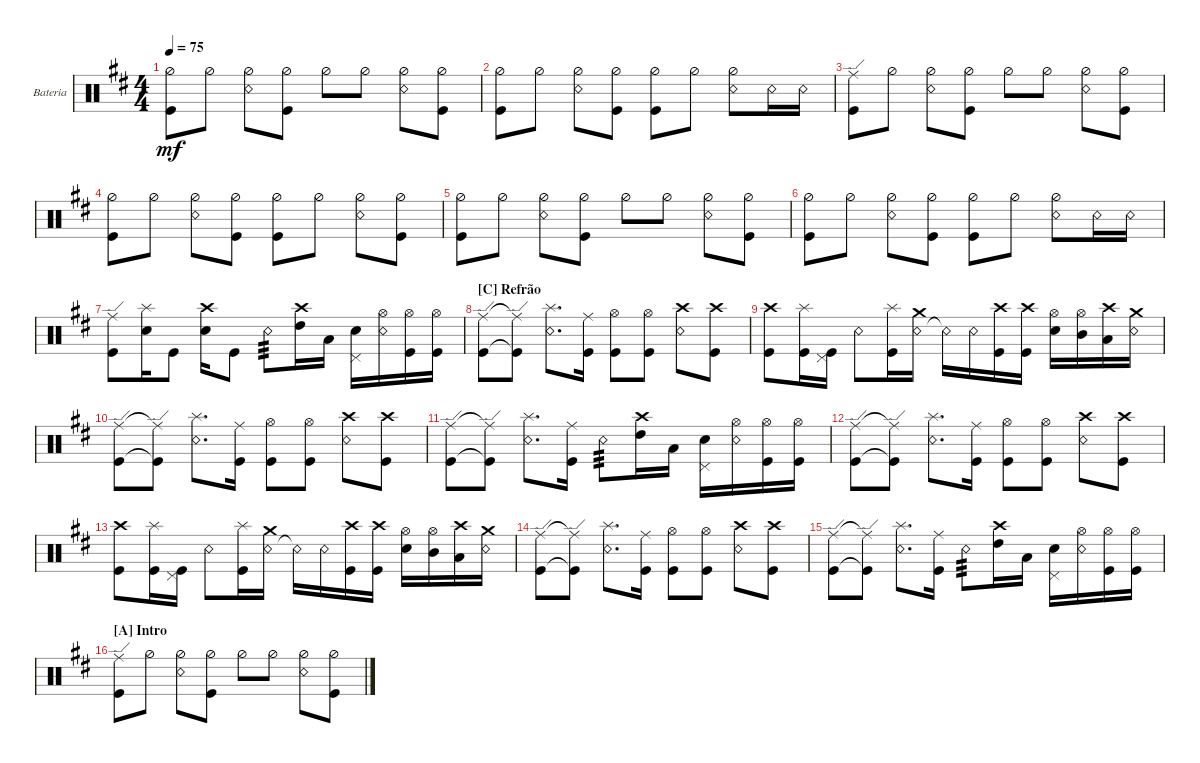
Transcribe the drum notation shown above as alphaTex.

\defaultSystemsLayout 4
\bracketExtendMode groupsimilarinstruments
\firstSystemTrackNameOrientation horizontal
\otherSystemsTrackNameOrientation horizontal
\track ("Bateria" "Bateria") {multiBarRest instrument percussion}
\staff {score}
\articulation defaults
\ts (4 4)
\tempo 75
\clef neutral
\ks d
("Hi-Hat (half)" "Kick (hit)").8{dy mf} "Hi-Hat (half)".8 ("Hi-Hat (half)" "Snare (rim shot)").8 ("Hi-Hat (half)" "Kick (hit)").8 "Hi-Hat (half)".8 "Hi-Hat (half)".8 ("Snare (rim shot)" "Hi-Hat (half)").8 ("Hi-Hat (half)" "Kick (hit)").8 |
("Hi-Hat (half)" "Kick (hit)").8 "Hi-Hat (half)".8 ("Hi-Hat (half)" "Snare (rim shot)").8 ("Hi-Hat (half)" "Kick (hit)").8 ("Hi-Hat (half)" "Kick (hit)").8 "Hi-Hat (half)".8 ("Snare (rim shot)" "Hi-Hat (half)").8 "Snare (rim shot)".16 "Snare (rim shot)".16 |
("Kick (hit)" "Ride (edge)").8 "Hi-Hat (half)".8 ("Hi-Hat (half)" "Snare (rim shot)").8 ("Hi-Hat (half)" "Kick (hit)").8 "Hi-Hat (half)".8 "Hi-Hat (half)".8 ("Hi-Hat (half)" "Snare (rim shot)").8 ("Hi-Hat (half)" "Kick (hit)").8 |
("Hi-Hat (half)" "Kick (hit)").8 "Hi-Hat (half)".8 ("Hi-Hat (half)" "Snare (rim shot)").8 ("Hi-Hat (half)" "Kick (hit)").8 ("Hi-Hat (half)" "Kick (hit)").8 "Hi-Hat (half)".8 ("Snare (rim shot)" "Hi-Hat (half)").8 ("Hi-Hat (half)" "Kick (hit)").8 |
("Hi-Hat (half)" "Kick (hit)").8 "Hi-Hat (half)".8 ("Hi-Hat (half)" "Snare (rim shot)").8 ("Hi-Hat (half)" "Kick (hit)").8 "Hi-Hat (half)".8 "Hi-Hat (half)".8 ("Snare (rim shot)" "Hi-Hat (half)").8 ("Hi-Hat (half)" "Kick (hit)").8 |
("Hi-Hat (half)" "Kick (hit)").8 "Hi-Hat (half)".8 ("Hi-Hat (half)" "Snare (rim shot)").8 ("Hi-Hat (half)" "Kick (hit)").8 ("Hi-Hat (half)" "Kick (hit)").8 "Hi-Hat (half)".8 ("Snare (rim shot)" "Hi-Hat (half)").8 "Snare (rim shot)".16 "Snare (rim shot)".16 |
("Ride (edge)" "Kick (hit)").8 ("Snare (hit) 2" "Splash (hit)").16 "Kick (hit)".8 ("Snare (hit) 2" "Crash high (hit)").16 "Kick (hit)".8 "Snare (rim shot)".8{tp 3} ("High Tom (hit)" "Crash high (hit)").16 "Low Tom (hit)".16 ("Snare (hit) 2" "Pedal Hi-Hat (hit)").16 ("Snare (rim shot)" "Hi-Hat (open)").16 ("Kick (hit)" "Hi-Hat (open)").16 ("Kick (hit)" "Hi-Hat (open)").16 |
\section ("C" "Refrão")
("Kick (hit)" "Ride (edge)").8 ("Kick (hit)"{t} "Ride (edge)"{t}).8 ("Snare (rim shot)" "Splash (hit)").8{d} ("Kick (hit)" "Ride (middle)").16 ("Kick (hit)" "Hi-Hat (open)").8 ("Kick (hit)" "Hi-Hat (open)").8 ("Snare (rim shot)" "Crash high (hit)").8 ("Kick (hit)" "Crash high (hit)").8 |
("Kick (hit)" "Crash high (hit)").8 ("Kick (hit)" "Splash (hit)").16 ("Kick (hit)" "Pedal Hi-Hat (hit)").16 "Snare (rim shot)".8 ("Kick (hit)" "Splash (hit)").16 ("Snare (rim shot)" "Crash medium (hit)").16 "Snare (rim shot)"{t}.16 "Snare (rim shot)".16 ("Kick (hit)" "Crash high (hit)").16 ("Kick (hit)" "Crash high (hit)").16 ("Snare (hit) 2" "Hi-Hat (open)").16 ("Mid Tom (hit)" "Hi-Hat (open)").16 ("Low Tom (hit)" "Crash high (hit)").16 ("Snare (rim shot)" "Crash medium (hit)").16 |
("Kick (hit)" "Ride (edge)").8 ("Kick (hit)"{t} "Ride (edge)"{t}).8 ("Snare (rim shot)" "Splash (hit)").8{d} ("Kick (hit)" "Ride (middle)").16 ("Kick (hit)" "Hi-Hat (open)").8 ("Kick (hit)" "Hi-Hat (open)").8 ("Snare (rim shot)" "Crash high (hit)").8 ("Kick (hit)" "Crash high (hit)").8 |
("Kick (hit)" "Ride (edge)").8 ("Kick (hit)"{t} "Ride (edge)"{t}).8 ("Snare (rim shot)" "Splash (hit)").8{d} ("Kick (hit)" "Ride (middle)").16 "Snare (rim shot)".8{tp 3} ("High Tom (hit)" "Crash high (hit)").16 "Low Tom (hit)".16 ("Snare (hit) 2" "Pedal Hi-Hat (hit)").16 ("Snare (rim shot)" "Hi-Hat (open)").16 ("Kick (hit)" "Hi-Hat (open)").16 ("Kick (hit)" "Hi-Hat (open)").16 |
("Kick (hit)" "Ride (edge)").8 ("Kick (hit)"{t} "Ride (edge)"{t}).8 ("Snare (rim shot)" "Splash (hit)").8{d} ("Kick (hit)" "Ride (middle)").16 ("Kick (hit)" "Hi-Hat (open)").8 ("Kick (hit)" "Hi-Hat (open)").8 ("Snare (rim shot)" "Crash high (hit)").8 ("Kick (hit)" "Crash high (hit)").8 |
("Kick (hit)" "Crash high (hit)").8 ("Kick (hit)" "Splash (hit)").16 ("Kick (hit)" "Pedal Hi-Hat (hit)").16 "Snare (rim shot)".8 ("Kick (hit)" "Splash (hit)").16 ("Snare (rim shot)" "Crash medium (hit)").16 "Snare (rim shot)"{t}.16 "Snare (rim shot)".16 ("Kick (hit)" "Crash high (hit)").16 ("Kick (hit)" "Crash high (hit)").16 ("Snare (hit) 2" "Hi-Hat (open)").16 ("Mid Tom (hit)" "Hi-Hat (open)").16 ("Low Tom (hit)" "Crash high (hit)").16 ("Snare (rim shot)" "Crash medium (hit)").16 |
("Kick (hit)" "Ride (edge)").8 ("Kick (hit)"{t} "Ride (edge)"{t}).8 ("Snare (rim shot)" "Splash (hit)").8{d} ("Kick (hit)" "Ride (middle)").16 ("Kick (hit)" "Hi-Hat (open)").8 ("Kick (hit)" "Hi-Hat (open)").8 ("Snare (rim shot)" "Crash high (hit)").8 ("Kick (hit)" "Crash high (hit)").8 |
("Kick (hit)" "Ride (edge)").8 ("Kick (hit)"{t} "Ride (edge)"{t}).8 ("Snare (rim shot)" "Splash (hit)").8{d} ("Kick (hit)" "Ride (middle)").16 "Snare (rim shot)".8{tp 3} ("High Tom (hit)" "Crash high (hit)").16 "Low Tom (hit)".16 ("Snare (hit) 2" "Pedal Hi-Hat (hit)").16 ("Snare (rim shot)" "Hi-Hat (open)").16 ("Kick (hit)" "Hi-Hat (open)").16 ("Kick (hit)" "Hi-Hat (open)").16 |
\section ("A" "Intro")
("Kick (hit)" "Ride (edge)").8 "Hi-Hat (half)".8 ("Hi-Hat (half)" "Snare (rim shot)").8 ("Hi-Hat (half)" "Kick (hit)").8 "Hi-Hat (half)".8 "Hi-Hat (half)".8 ("Hi-Hat (half)" "Snare (rim shot)").8 ("Hi-Hat (half)" "Kick (hit)").8
